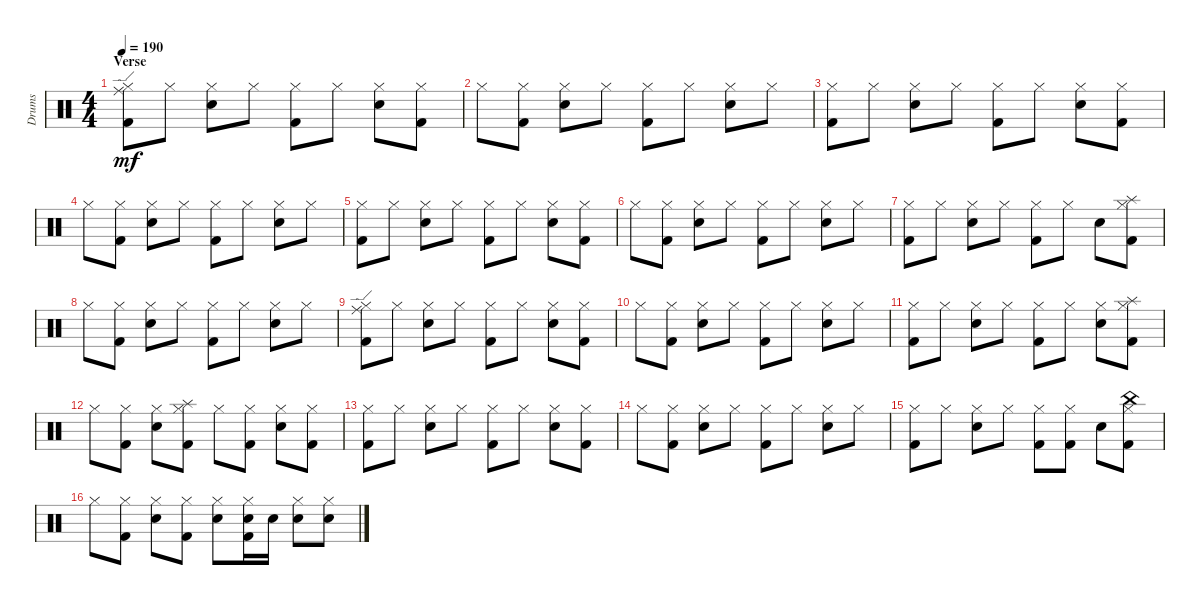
\defaultSystemsLayout 4
\bracketExtendMode groupsimilarinstruments
\otherSystemsTrackNameOrientation horizontal
\track ("Prakarsh" "Drums") {instrument percussion}
\staff {score}
\articulation defaults
\ts (4 4)
\section ("" "Verse")
\tempo 190
\clef neutral
\ks c
("Kick (hit) 2" "Hi-Hat (closed)" "Ride (edge)").8{dy mf beam Down} "Hi-Hat (closed)".8{beam Down} ("Hi-Hat (closed)" "Snare (hit) 2").8{beam Down} "Hi-Hat (closed)".8{beam Down} ("Hi-Hat (closed)" "Kick (hit) 2").8{beam Down} "Hi-Hat (closed)".8{beam Down} ("Hi-Hat (closed)" "Snare (hit) 2").8{beam Down} ("Hi-Hat (closed)" "Kick (hit) 2").8{beam Down} |
"Hi-Hat (closed)".8{beam Down} ("Hi-Hat (closed)" "Kick (hit) 2").8{beam Down} ("Hi-Hat (closed)" "Snare (hit) 2").8{beam Down} "Hi-Hat (closed)".8{beam Down} ("Hi-Hat (closed)" "Kick (hit) 2").8{beam Down} "Hi-Hat (closed)".8{beam Down} ("Hi-Hat (closed)" "Snare (hit) 2").8{beam Down} "Hi-Hat (closed)".8{beam Down} |
("Kick (hit) 2" "Hi-Hat (closed)").8{beam Down} "Hi-Hat (closed)".8{beam Down} ("Hi-Hat (closed)" "Snare (hit) 2").8{beam Down} "Hi-Hat (closed)".8{beam Down} ("Hi-Hat (closed)" "Kick (hit) 2").8{beam Down} "Hi-Hat (closed)".8{beam Down} ("Hi-Hat (closed)" "Snare (hit) 2").8{beam Down} ("Hi-Hat (closed)" "Kick (hit) 2").8{beam Down} |
"Hi-Hat (closed)".8{beam Down} ("Hi-Hat (closed)" "Kick (hit) 2").8{beam Down} ("Hi-Hat (closed)" "Snare (hit) 2").8{beam Down} "Hi-Hat (closed)".8{beam Down} ("Hi-Hat (closed)" "Kick (hit) 2").8{beam Down} "Hi-Hat (closed)".8{beam Down} ("Hi-Hat (closed)" "Snare (hit) 2").8{beam Down} "Hi-Hat (closed)".8{beam Down} |
("Kick (hit) 2" "Hi-Hat (closed)").8{beam Down} "Hi-Hat (closed)".8{beam Down} ("Hi-Hat (closed)" "Snare (hit) 2").8{beam Down} "Hi-Hat (closed)".8{beam Down} ("Hi-Hat (closed)" "Kick (hit) 2").8{beam Down} "Hi-Hat (closed)".8{beam Down} ("Hi-Hat (closed)" "Snare (hit) 2").8{beam Down} ("Hi-Hat (closed)" "Kick (hit) 2").8{beam Down} |
"Hi-Hat (closed)".8{beam Down} ("Hi-Hat (closed)" "Kick (hit) 2").8{beam Down} ("Hi-Hat (closed)" "Snare (hit) 2").8{beam Down} "Hi-Hat (closed)".8{beam Down} ("Hi-Hat (closed)" "Kick (hit) 2").8{beam Down} "Hi-Hat (closed)".8{beam Down} ("Hi-Hat (closed)" "Snare (hit) 2").8{beam Down} "Hi-Hat (closed)".8{beam Down} |
("Kick (hit) 2" "Hi-Hat (closed)").8{beam Down} "Hi-Hat (closed)".8{beam Down} ("Hi-Hat (closed)" "Snare (hit) 2").8{beam Down} "Hi-Hat (closed)".8{beam Down} ("Hi-Hat (closed)" "Kick (hit) 2").8{beam Down} "Hi-Hat (closed)".8{beam Down} "Snare (hit) 2".8{beam Down} ("Hi-Hat (closed)" "Kick (hit) 2" "Splash (hit)").8{beam Down} |
"Hi-Hat (closed)".8{beam Down} ("Hi-Hat (closed)" "Kick (hit) 2").8{beam Down} ("Hi-Hat (closed)" "Snare (hit) 2").8{beam Down} "Hi-Hat (closed)".8{beam Down} ("Hi-Hat (closed)" "Kick (hit) 2").8{beam Down} "Hi-Hat (closed)".8{beam Down} ("Hi-Hat (closed)" "Snare (hit) 2").8{beam Down} "Hi-Hat (closed)".8{beam Down} |
("Kick (hit) 2" "Hi-Hat (closed)" "Ride (edge)").8{beam Down} "Hi-Hat (closed)".8{beam Down} ("Hi-Hat (closed)" "Snare (hit) 2").8{beam Down} "Hi-Hat (closed)".8{beam Down} ("Hi-Hat (closed)" "Kick (hit) 2").8{beam Down} "Hi-Hat (closed)".8{beam Down} ("Hi-Hat (closed)" "Snare (hit) 2").8{beam Down} ("Hi-Hat (closed)" "Kick (hit) 2").8{beam Down} |
"Hi-Hat (closed)".8{beam Down} ("Hi-Hat (closed)" "Kick (hit) 2").8{beam Down} ("Hi-Hat (closed)" "Snare (hit) 2").8{beam Down} "Hi-Hat (closed)".8{beam Down} ("Hi-Hat (closed)" "Kick (hit) 2").8{beam Down} "Hi-Hat (closed)".8{beam Down} ("Hi-Hat (closed)" "Snare (hit) 2").8{beam Down} "Hi-Hat (closed)".8{beam Down} |
("Kick (hit) 2" "Hi-Hat (closed)").8{beam Down} "Hi-Hat (closed)".8{beam Down} ("Hi-Hat (closed)" "Snare (hit) 2").8{beam Down} "Hi-Hat (closed)".8{beam Down} ("Hi-Hat (closed)" "Kick (hit) 2").8{beam Down} "Hi-Hat (closed)".8{beam Down} ("Hi-Hat (closed)" "Snare (hit) 2").8{beam Down} ("Hi-Hat (closed)" "Kick (hit) 2" "Splash (hit)").8{beam Down} |
"Hi-Hat (closed)".8{beam Down} ("Hi-Hat (closed)" "Kick (hit) 2").8{beam Down} ("Snare (hit) 2" "Hi-Hat (closed)").8{beam Down} ("Hi-Hat (closed)" "Kick (hit) 2" "Splash (hit)").8{beam Down} "Hi-Hat (closed)".8{beam Down} ("Hi-Hat (closed)" "Kick (hit) 2").8{beam Down} ("Snare (hit) 2" "Hi-Hat (closed)").8{beam Down} ("Hi-Hat (closed)" "Kick (hit) 2").8{beam Down} |
("Kick (hit) 2" "Hi-Hat (closed)").8{beam Down} "Hi-Hat (closed)".8{beam Down} ("Hi-Hat (closed)" "Snare (hit) 2").8{beam Down} "Hi-Hat (closed)".8{beam Down} ("Hi-Hat (closed)" "Kick (hit) 2").8{beam Down} "Hi-Hat (closed)".8{beam Down} ("Hi-Hat (closed)" "Snare (hit) 2").8{beam Down} ("Hi-Hat (closed)" "Kick (hit) 2").8{beam Down} |
"Hi-Hat (closed)".8{beam Down} ("Hi-Hat (closed)" "Kick (hit) 2").8{beam Down} ("Hi-Hat (closed)" "Snare (hit) 2").8{beam Down} "Hi-Hat (closed)".8{beam Down} ("Hi-Hat (closed)" "Kick (hit) 2").8{beam Down} "Hi-Hat (closed)".8{beam Down} ("Hi-Hat (closed)" "Snare (hit) 2").8{beam Down} "Hi-Hat (closed)".8{beam Down} |
("Kick (hit) 2" "Hi-Hat (closed)").8{beam Down} "Hi-Hat (closed)".8{beam Down} ("Hi-Hat (closed)" "Snare (hit) 2").8{beam Down} "Hi-Hat (closed)".8{beam Down} ("Hi-Hat (closed)" "Kick (hit) 2").8{beam Down} ("Hi-Hat (closed)" "Kick (hit) 2").8{beam Down} "Snare (hit) 2".8{beam Down} ("Hi-Hat (closed)" "Kick (hit) 2" "China (hit)").8{beam Down} |
"Hi-Hat (closed)".8{beam Down} ("Hi-Hat (closed)" "Kick (hit) 2").8{beam Down} ("Hi-Hat (closed)" "Snare (hit) 2").8{beam Down} ("Hi-Hat (closed)" "Kick (hit) 2").8{beam Down} ("Hi-Hat (closed)" "Snare (hit) 2").8{beam Down} ("Hi-Hat (closed)" "Kick (hit) 2" "Snare (hit) 2").16{beam Down} "Snare (hit) 2".16{beam Down} ("Hi-Hat (closed)" "Snare (hit) 2").8{beam Down} ("Hi-Hat (closed)" "Snare (hit) 2").8{beam Down}
